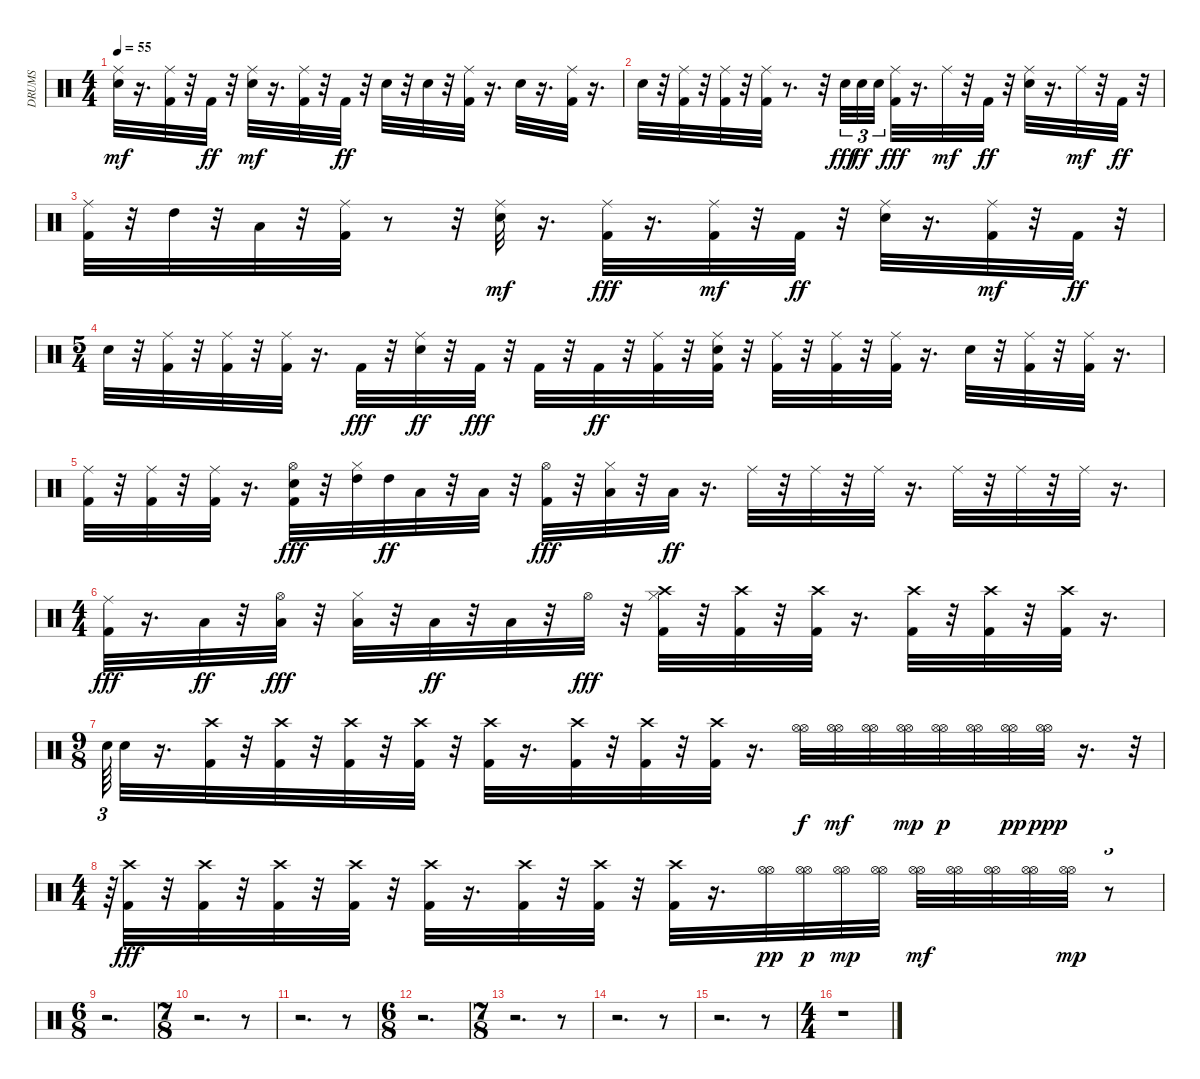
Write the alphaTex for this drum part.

\track ("DRUMS            " "DRUMS     ") {instrument percussion}
\staff {score}
\articulation defaults
\ts (4 4)
\tempo 55
\clef neutral
\ks c
("Snare (hit) 2" "Ride (middle)").32{dy mf} r.16{d} ("Kick (hit) 2" "Ride (middle)").32 r.32 "Kick (hit) 2".32{dy ff} r.32 ("Snare (hit) 2" "Ride (middle)").32{dy mf} r.16{d} ("Kick (hit) 2" "Ride (middle)").32 r.32 "Kick (hit) 2".32{dy ff} r.32 "Snare (hit) 2".32 r.32 "Snare (hit) 2".32 r.32 ("Kick (hit) 2" "Ride (middle)").32 r.16{d} "Snare (hit) 2".32 r.16{d} ("Kick (hit) 2" "Ride (middle)").32 r.16{d} |
"Snare (hit) 2".32 r.32 ("Kick (hit) 2" "Ride (middle)").32 r.32 ("Kick (hit) 2" "Ride (middle)").32 r.32 ("Kick (hit) 2" "Ride (middle)").32 r.8{d} r.32 "Snare (hit) 2".32{tu (3 2) dy fff} "Snare (hit) 2".32{tu (3 2) dy ff} "Snare (hit) 2".32{tu (3 2)} ("Kick (hit) 2" "Ride (middle)").32{dy fff} r.16{d} "Ride (middle)".32{dy mf} r.32 "Kick (hit) 2".32{dy ff} r.32 ("Snare (hit) 2" "Ride (middle)").32 r.16{d} "Ride (middle)".32{dy mf} r.32 "Kick (hit) 2".32{dy ff} r.32 |
("Kick (hit) 2" "Ride (middle)").32 r.32 "High Tom (hit)".32 r.32 "Low Tom (hit)".32 r.32 ("Kick (hit) 2" "Ride (middle)").32 r.8 r.32 ("Snare (hit) 2" "Ride (middle)").32{dy mf} r.16{d} ("Kick (hit) 2" "Ride (middle)").32{dy fff} r.16{d} ("Kick (hit) 2" "Ride (middle)").32{dy mf} r.32 "Kick (hit) 2".32{dy ff} r.32 ("Snare (hit) 2" "Ride (middle)").32 r.16{d} ("Kick (hit) 2" "Ride (middle)").32{dy mf} r.32 "Kick (hit) 2".32{dy ff} r.32 |
\ts (5 4)
"Snare (hit) 2".32 r.32 ("Kick (hit) 2" "Ride (middle)").32 r.32 ("Kick (hit) 2" "Ride (middle)").32 r.32 ("Kick (hit) 2" "Ride (middle)").32 r.16{d} "Kick (hit) 2".32{dy fff} r.32 ("Snare (hit) 2" "Ride (middle)").32{dy ff} r.32 "Kick (hit) 2".32{dy fff} r.32 "Kick (hit) 2".32 r.32 "Kick (hit) 2".32{dy ff} r.32 ("Kick (hit) 2" "Ride (middle)").32 r.32 ("Kick (hit) 2" "Snare (hit) 2" "Ride (middle)").32 r.32 ("Kick (hit) 2" "Ride (middle)").32 r.32 ("Kick (hit) 2" "Ride (middle)").32 r.32 ("Kick (hit) 2" "Ride (middle)").32 r.16{d} "Snare (hit) 2".32 r.32 ("Kick (hit) 2" "Ride (middle)").32 r.32 ("Kick (hit) 2" "Ride (middle)").32 r.16{d} |
("Kick (hit) 2" "Ride (middle)").32{volume 15} r.32 ("Kick (hit) 2" "Ride (middle)").32 r.32 ("Kick (hit) 2" "Ride (middle)").32 r.16{d} ("Kick (hit) 2" "Snare (hit) 2" "Hi-Hat (open)").32{dy fff} r.32 ("High Tom (hit)" "Hi-Hat (closed)").32 "High Tom (hit)".32{dy ff} "Low Tom (hit)".32 r.32 "Low Tom (hit)".32 r.32 ("Kick (hit) 2" "Hi-Hat (open)").32{dy fff} r.32 ("Low Tom (hit)" "Hi-Hat (closed)").32 r.32 "Low Tom (hit)".32{dy ff} r.16{d} "Ride (middle)".32 r.32 "Ride (middle)".32 r.32 "Ride (middle)".32 r.16{d} "Ride (middle)".32 r.32 "Ride (middle)".32 r.32 "Ride (middle)".32 r.16{d} |
\ts (4 4)
("Kick (hit) 2" "Ride (middle)").32{dy fff volume 16} r.16{d} "Low Floor Tom (hit)".32{dy ff} r.32 ("Low Floor Tom (hit)" "Hi-Hat (open)").32{dy fff} r.32 ("Low Floor Tom (hit)" "Hi-Hat (closed)").32 r.32 "Low Floor Tom (hit)".32{dy ff} r.32 "Low Floor Tom (hit)".32 r.32 "Hi-Hat (open)".32{dy fff} r.32 ("Kick (hit) 2" "Hi-Hat (closed)" "Crash high (hit)").32 r.32 ("Kick (hit) 2" "Crash high (hit)").32 r.32 ("Kick (hit) 2" "Crash high (hit)").32 r.16{d} ("Kick (hit) 2" "Crash high (hit)").32 r.32 ("Kick (hit) 2" "Crash high (hit)").32 r.32 ("Kick (hit) 2" "Crash high (hit)").32 r.16{d} |
\ts (9 8)
"Snare (hit) 2".64{tu (3 2)} "Snare (hit) 2".32 r.16{d} ("Kick (hit) 2" "Crash high (hit)").32 r.32 ("Kick (hit) 2" "Crash high (hit)").32 r.32 ("Kick (hit) 2" "Crash high (hit)").32 r.32 ("Kick (hit) 2" "Crash high (hit)").32 r.32 ("Kick (hit) 2" "Crash high (hit)").32 r.16{d} ("Kick (hit) 2" "Crash high (hit)").32 r.32 ("Kick (hit) 2" "Crash high (hit)").32 r.32 ("Kick (hit) 2" "Crash high (hit)").32 r.16{d} ("Hi-Hat (open)" "Hi-Hat (open)").32{dy f} ("Hi-Hat (open)" "Hi-Hat (open)").32{dy mf} ("Hi-Hat (open)" "Hi-Hat (open)").32 ("Hi-Hat (open)" "Hi-Hat (open)").32{dy mp} ("Hi-Hat (open)" "Hi-Hat (open)").32{dy p} ("Hi-Hat (open)" "Hi-Hat (open)").32 ("Hi-Hat (open)" "Hi-Hat (open)").32{dy pp} ("Hi-Hat (open)" "Hi-Hat (open)").32{dy ppp} r.16{d} r.32{tu (3 2)} |
\ts (4 4)
r.64{tu (3 2)} ("Kick (hit) 2" "Crash high (hit)").32{dy fff} r.32 ("Kick (hit) 2" "Crash high (hit)").32 r.32 ("Kick (hit) 2" "Crash high (hit)").32 r.32 ("Kick (hit) 2" "Crash high (hit)").32 r.32 ("Kick (hit) 2" "Crash high (hit)").32 r.16{d} ("Kick (hit) 2" "Crash high (hit)").32 r.32 ("Kick (hit) 2" "Crash high (hit)").32 r.32 ("Kick (hit) 2" "Crash high (hit)").32 r.16{d} ("Hi-Hat (open)" "Hi-Hat (open)").32{dy pp} ("Hi-Hat (open)" "Hi-Hat (open)").32{dy p} ("Hi-Hat (open)" "Hi-Hat (open)").32{dy mp} ("Hi-Hat (open)" "Hi-Hat (open)").32 ("Hi-Hat (open)" "Hi-Hat (open)").32{dy mf} ("Hi-Hat (open)" "Hi-Hat (open)").32 ("Hi-Hat (open)" "Hi-Hat (open)").32 ("Hi-Hat (open)" "Hi-Hat (open)").32 ("Hi-Hat (open)" "Hi-Hat (open)").32{dy mp} r.8{tu (3 2)} |
\ts (6 8)
r.2{d} |
\ts (7 8)
r.2{d} r.8 |
r.2{d} r.8 |
\ts (6 8)
r.2{d} |
\ts (7 8)
r.2{d} r.8 |
r.2{d} r.8 |
r.2{d} r.8 |
\ts (4 4)
r.1
